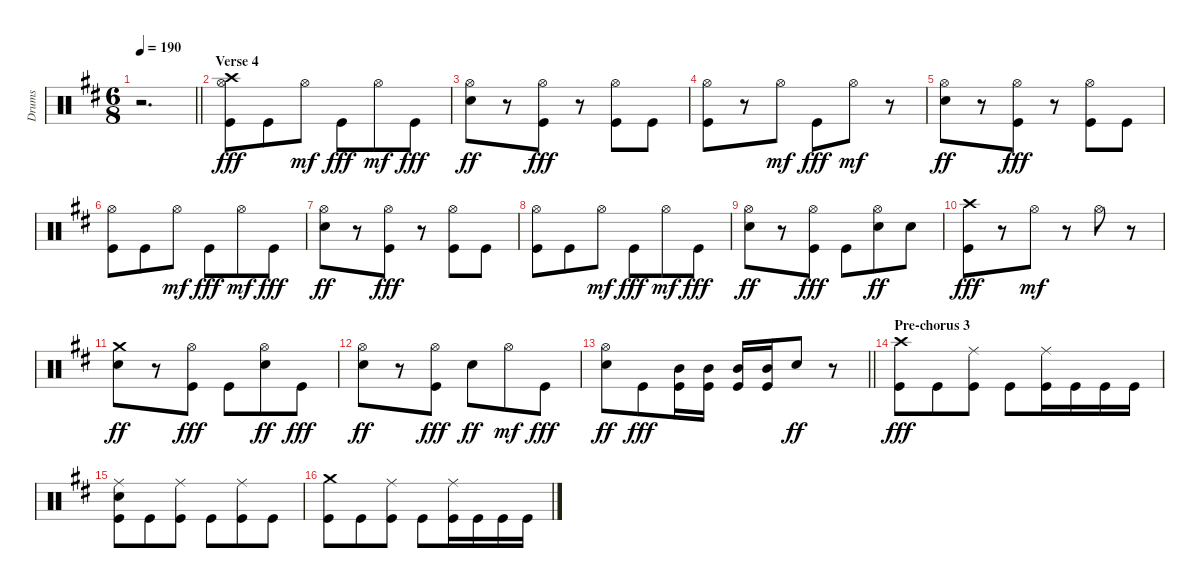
\track ("Drums" "Drums") {instrument percussion}
\staff {score}
\articulation defaults
\ts (6 8)
\tempo 190
\clef neutral
\barLineRight lightlight
\ks bminor
r.2{d dy fff} |
\section ("" "Verse 4")
("Crash high (hit)" "Hi-Hat (open)" "Kick (hit)").8 "Kick (hit)".8 "Hi-Hat (open)".8{dy mf} "Kick (hit)".8{dy fff} "Hi-Hat (open)".8{dy mf} "Kick (hit)".8{dy fff} |
("Hi-Hat (open)" "Snare (hit) 2").8{dy ff} r.8 ("Hi-Hat (open)" "Kick (hit)").8{dy fff} r.8 ("Hi-Hat (open)" "Kick (hit)").8 "Kick (hit)".8 |
("Hi-Hat (open)" "Kick (hit)").8 r.8 "Hi-Hat (open)".8{dy mf} "Kick (hit)".8{dy fff} "Hi-Hat (open)".8{dy mf} r.8 |
("Hi-Hat (open)" "Snare (hit) 2").8{dy ff} r.8 ("Hi-Hat (open)" "Kick (hit)").8{dy fff} r.8 ("Hi-Hat (open)" "Kick (hit)").8 "Kick (hit)".8 |
("Hi-Hat (open)" "Kick (hit)").8 "Kick (hit)".8 "Hi-Hat (open)".8{dy mf} "Kick (hit)".8{dy fff} "Hi-Hat (open)".8{dy mf} "Kick (hit)".8{dy fff} |
("Hi-Hat (open)" "Snare (hit) 2").8{dy ff} r.8 ("Hi-Hat (open)" "Kick (hit)").8{dy fff} r.8 ("Hi-Hat (open)" "Kick (hit)").8 "Kick (hit)".8 |
("Hi-Hat (open)" "Kick (hit)").8 "Kick (hit)".8 "Hi-Hat (open)".8{dy mf} "Kick (hit)".8{dy fff} "Hi-Hat (open)".8{dy mf} "Kick (hit)".8{dy fff} |
("Hi-Hat (open)" "Snare (hit) 2").8{dy ff} r.8 ("Hi-Hat (open)" "Kick (hit)").8{dy fff} "Kick (hit)".8 ("Hi-Hat (open)" "Snare (hit) 2").8{dy ff} "Snare (hit) 2".8 |
("Crash high (hit)" "Kick (hit)").8{dy fff} r.8 "Hi-Hat (open)".8{dy mf} r.8 "Hi-Hat (open)".8 r.8 |
("Crash medium (hit)" "Snare (hit) 2").8{dy ff} r.8 ("Hi-Hat (open)" "Kick (hit)").8{dy fff} "Kick (hit)".8 ("Hi-Hat (open)" "Snare (hit) 2").8{dy ff} "Kick (hit)".8{dy fff} |
("Hi-Hat (open)" "Snare (hit) 2").8{dy ff} r.8 ("Hi-Hat (open)" "Kick (hit)").8{dy fff} "Snare (hit) 2".8{dy ff} "Hi-Hat (open)".8{dy mf} "Kick (hit)".8{dy fff} |
\barLineRight lightlight
("Hi-Hat (open)" "Snare (hit) 2").8{dy ff} "Kick (hit)".8{dy fff} ("Mid Tom (hit)" "Kick (hit)").16 ("Mid Tom (hit)" "Kick (hit)").16 ("Mid Tom (hit)" "Kick (hit)").16 ("Mid Tom (hit)" "Kick (hit)").16 "Snare (hit) 2".8{dy ff} r.8 |
\section ("" "Pre-chorus 3")
("Crash high (hit)" "Kick (hit)").8{dy fff} "Kick (hit)".8 ("Ride (middle)" "Kick (hit)").8 "Kick (hit)".8 ("Ride (middle)" "Kick (hit)").16 "Kick (hit)".16 "Kick (hit)".16 "Kick (hit)".16 |
("Ride (middle)" "Snare (hit) 2" "Kick (hit)").8 "Kick (hit)".8 ("Ride (middle)" "Kick (hit)").8 "Kick (hit)".8 ("Ride (middle)" "Kick (hit)").8 "Kick (hit)".8 |
("Crash medium (hit)" "Kick (hit)").8 "Kick (hit)".8 ("Ride (middle)" "Kick (hit)").8 "Kick (hit)".8 ("Ride (middle)" "Kick (hit)").16 "Kick (hit)".16 "Kick (hit)".16 "Kick (hit)".16
